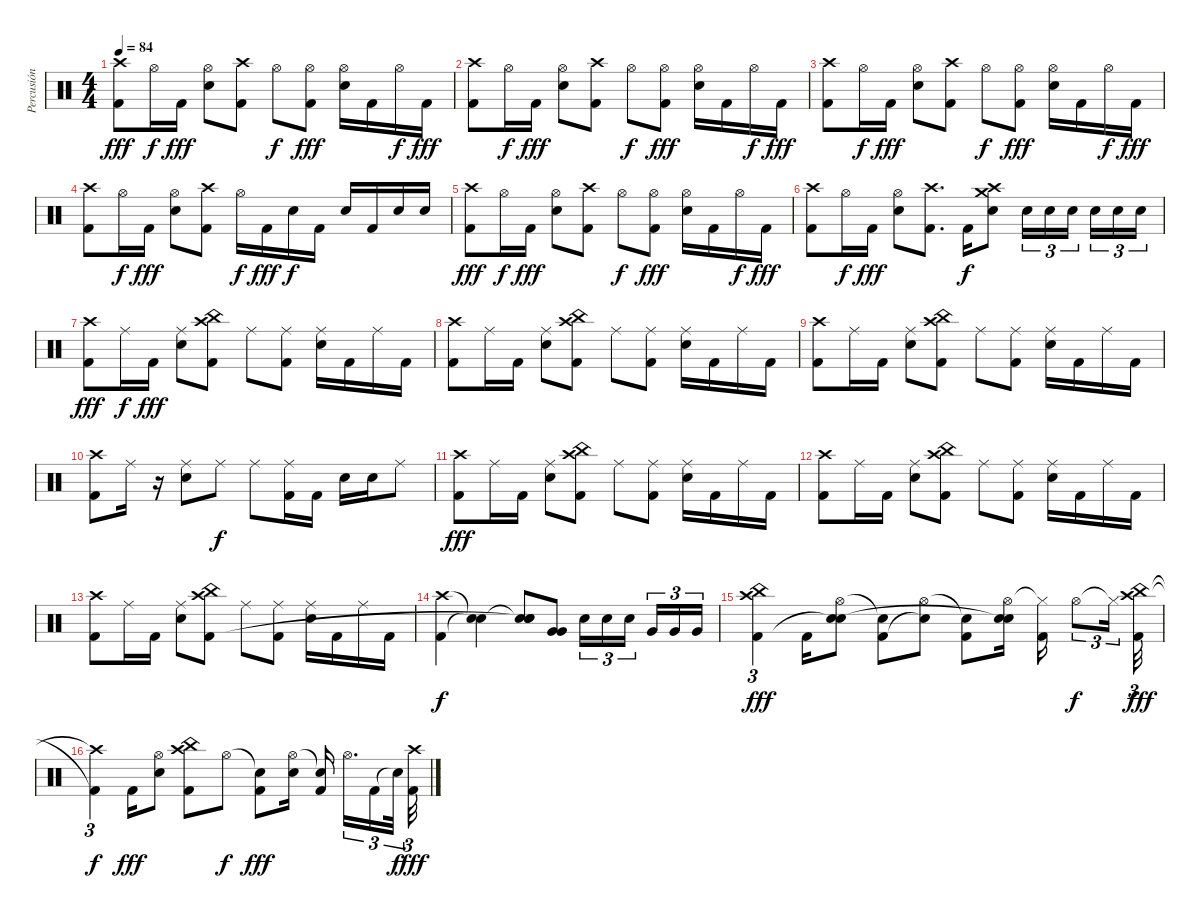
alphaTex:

\track ("Percusión" "Percusión") {instrument percussion}
\staff {score}
\articulation defaults
\ts (4 4)
\tempo 84
\clef neutral
\ks c
("Crash high (hit)" "Kick (hit) 2").8{dy fff} "Hi-Hat (open)".16{dy f} "Kick (hit) 2".16{dy fff} ("Hi-Hat (open)" "Snare (hit) 2").8 ("Crash high (hit)" "Kick (hit) 2").8 "Hi-Hat (open)".8{dy f} ("Hi-Hat (open)" "Kick (hit) 2").8{dy fff} ("Hi-Hat (open)" "Snare (hit) 2").16 "Kick (hit) 2".16 "Hi-Hat (open)".16{dy f} "Kick (hit) 2".16{dy fff} |
("Crash high (hit)" "Kick (hit) 2").8 "Hi-Hat (open)".16{dy f} "Kick (hit) 2".16{dy fff} ("Hi-Hat (open)" "Snare (hit) 2").8 ("Crash high (hit)" "Kick (hit) 2").8 "Hi-Hat (open)".8{dy f} ("Hi-Hat (open)" "Kick (hit) 2").8{dy fff} ("Hi-Hat (open)" "Snare (hit) 2").16 "Kick (hit) 2".16 "Hi-Hat (open)".16{dy f} "Kick (hit) 2".16{dy fff} |
("Crash high (hit)" "Kick (hit) 2").8 "Hi-Hat (open)".16{dy f} "Kick (hit) 2".16{dy fff} ("Hi-Hat (open)" "Snare (hit) 2").8 ("Crash high (hit)" "Kick (hit) 2").8 "Hi-Hat (open)".8{dy f} ("Hi-Hat (open)" "Kick (hit) 2").8{dy fff} ("Hi-Hat (open)" "Snare (hit) 2").16 "Kick (hit) 2".16 "Hi-Hat (open)".16{dy f} "Kick (hit) 2".16{dy fff} |
("Crash high (hit)" "Kick (hit) 2").8 "Hi-Hat (open)".16{dy f} "Kick (hit) 2".16{dy fff} ("Hi-Hat (open)" "Snare (hit) 2").8 ("Crash high (hit)" "Kick (hit) 2").8 "Hi-Hat (open)".16{dy f} "Kick (hit) 2".16{dy fff} "Snare (hit) 2".16{dy f} "Kick (hit) 2".16 "Snare (hit) 2".16 "Kick (hit) 2".16 "Snare (hit) 2".16 "Snare (hit) 2".16 |
("Crash high (hit)" "Kick (hit) 2").8{dy fff} "Hi-Hat (open)".16{dy f} "Kick (hit) 2".16{dy fff} ("Hi-Hat (open)" "Snare (hit) 2").8 ("Crash high (hit)" "Kick (hit) 2").8 "Hi-Hat (open)".8{dy f} ("Hi-Hat (open)" "Kick (hit) 2").8{dy fff} ("Hi-Hat (open)" "Snare (hit) 2").16 "Kick (hit) 2".16 "Hi-Hat (open)".16{dy f} "Kick (hit) 2".16{dy fff} |
("Crash high (hit)" "Kick (hit) 2").8 "Hi-Hat (open)".16{dy f} "Kick (hit) 2".16{dy fff} ("Hi-Hat (open)" "Snare (hit) 2").8 ("Crash high (hit)" "Kick (hit) 2").8{d} "Kick (hit) 2".16{dy f} ("Crash high (hit)" "Crash medium (hit)" "Snare (hit) 2").8 "Snare (hit) 2".16{tu (3 2)} "Snare (hit) 2".16{tu (3 2)} "Snare (hit) 2".16{tu (3 2) beam splitsecondary} "Snare (hit) 2".16{tu (3 2)} "Snare (hit) 2".16{tu (3 2)} "Snare (hit) 2".16{tu (3 2)} |
("Crash high (hit)" "Kick (hit) 2").8{dy fff} "Ride (middle)".16{dy f} "Kick (hit) 2".16{dy fff} ("Ride (middle)" "Snare (hit) 2").8 ("Crash high (hit)" "China (hit)" "Kick (hit) 2").8 "Ride (middle)".8 ("Ride (middle)" "Kick (hit) 2").8 ("Ride (middle)" "Snare (hit) 2").16 "Kick (hit) 2".16 "Ride (middle)".16 "Kick (hit) 2".16 |
("Crash high (hit)" "Kick (hit) 2").8 "Ride (middle)".16 "Kick (hit) 2".16 ("Ride (middle)" "Snare (hit) 2").8 ("Crash high (hit)" "China (hit)" "Kick (hit) 2").8 "Ride (middle)".8 ("Ride (middle)" "Kick (hit) 2").8 ("Ride (middle)" "Snare (hit) 2").16 "Kick (hit) 2".16 "Ride (middle)".16 "Kick (hit) 2".16 |
("Crash high (hit)" "Kick (hit) 2").8 "Ride (middle)".16 "Kick (hit) 2".16 ("Ride (middle)" "Snare (hit) 2").8 ("Crash high (hit)" "China (hit)" "Kick (hit) 2").8 "Ride (middle)".8 ("Ride (middle)" "Kick (hit) 2").8 ("Ride (middle)" "Snare (hit) 2").16 "Kick (hit) 2".16 "Ride (middle)".16 "Kick (hit) 2".16 |
("Crash high (hit)" "Kick (hit) 2").8 "Ride (middle)".16 r.16 ("Ride (middle)" "Snare (hit) 2").8 "Ride (middle)".8{dy f} "Ride (middle)".8 ("Ride (middle)" "Kick (hit) 2").16 "Kick (hit) 2".16 "Snare (hit) 2".16 "Snare (hit) 2".16 "Ride (middle)".8 |
("Crash high (hit)" "Kick (hit) 2").8{dy fff} "Ride (middle)".16 "Kick (hit) 2".16 ("Ride (middle)" "Snare (hit) 2").8 ("Crash high (hit)" "China (hit)" "Kick (hit) 2").8 "Ride (middle)".8 ("Ride (middle)" "Kick (hit) 2").8 ("Ride (middle)" "Snare (hit) 2").16 "Kick (hit) 2".16 "Ride (middle)".16 "Kick (hit) 2".16 |
("Crash high (hit)" "Kick (hit) 2").8 "Ride (middle)".16 "Kick (hit) 2".16 ("Ride (middle)" "Snare (hit) 2").8 ("Crash high (hit)" "China (hit)" "Kick (hit) 2").8 "Ride (middle)".8 ("Ride (middle)" "Kick (hit) 2").8 ("Ride (middle)" "Snare (hit) 2").16 "Kick (hit) 2".16 "Ride (middle)".16 "Kick (hit) 2".16 |
("Crash high (hit)" "Kick (hit) 2").8 "Ride (middle)".16 "Kick (hit) 2".16 ("Ride (middle)" "Snare (hit) 2").8 ("Crash high (hit)" "China (hit)" "Kick (hit) 2").8 "Ride (middle)".8 ("Ride (middle)" "Kick (hit) 2").8 ("Ride (middle)" "Snare (hit) 2").16 "Kick (hit) 2".16 "Ride (middle)".16 "Kick (hit) 2".16 |
("Crash high (hit)" "Kick (hit) 2").4{dy f} ("Snare (hit)"{t} "Snare (hit)"{t}).4 ("Snare (hit)"{t} "Electric Snare (hit)" "Snare (hit)"{t}).8 ("Very Low Tom (hit)" "Very Low Tom (hit)").8 "Electric Snare (hit)".16{tu (3 2)} "Electric Snare (hit)".16{tu (3 2)} "Electric Snare (hit)".16{tu (3 2) beam splitsecondary} "Very Low Tom (hit)".16{tu (3 2)} "Very Low Tom (hit)".16{tu (3 2)} "Very Low Tom (hit)".16{tu (3 2)} |
("Crash high (hit)" "China (hit)" "Kick (hit) 2").4{tu (3 2) dy fff} "Kick (hit) 2".16 ("Hi-Hat (open)" "Snare (hit) 2" "Snare (hit)"{t}).8 ("Snare (hit)"{t} "Kick (hit) 2").8 ("Hi-Hat (open)" "Snare (hit)"{t}).8 ("Snare (hit)"{t} "Kick (hit) 2").8 ("Hi-Hat (open)" "Snare (hit) 2" "Snare (hit)"{t}).16 ("Hi-Hat (closed)"{t} "Kick (hit) 2").16 "Hi-Hat (open)".8{tu (3 2) dy f} "Hi-Hat (closed)"{t}.16{tu (3 2)} ("Crash high (hit)" "China (hit)" "Kick (hit) 2").32{tu (3 2) dy fff} |
("Crash high (hit)"{t} "Kick (hit) 2"{t}).4{tu (3 2) dy f} "Kick (hit) 2".16{dy fff} ("Hi-Hat (open)" "Snare (hit) 2").8 ("Crash high (hit)" "China (hit)" "Kick (hit) 2").8 "Hi-Hat (open)".8{dy f} ("Snare (hit)"{t} "Kick (hit) 2").8{dy fff} ("Hi-Hat (open)" "Snare (hit) 2").16 ("Snare (hit)"{t} "Kick (hit) 2").16{beam splitsecondary} "Hi-Hat (open)".16{d tu (3 2)} "Kick (hit) 2".16{tu (3 2)} "Snare (hit)"{t}.32{tu (3 2) dy f} ("Crash high (hit)" "Kick (hit) 2").32{tu (3 2) dy fff}
